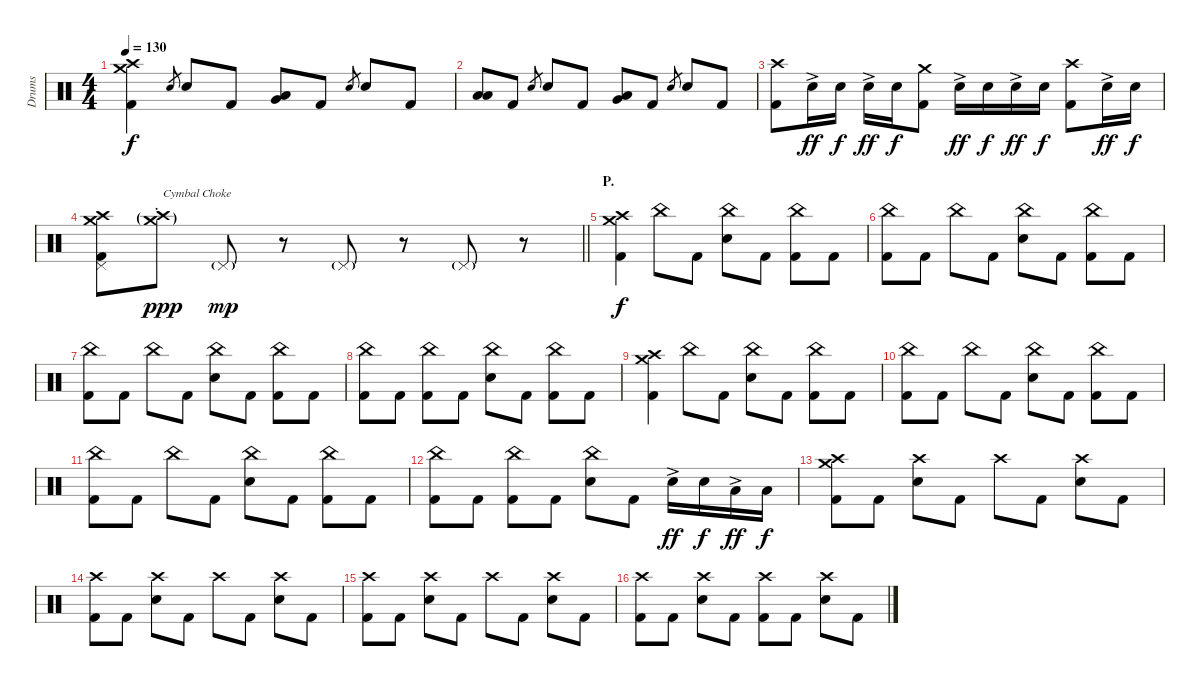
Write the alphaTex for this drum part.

\track ("Drums" "Drums") {instrument percussion}
\staff {score}
\articulation defaults
\ts (4 4)
\tempo 130
\clef neutral
\ks c
("Crash medium (hit)" "Crash high (hit)" "Kick (hit) 2").4{dy f} "Electric Snare (hit)".8{gr} "Electric Snare (hit)".8 "Kick (hit) 2".8 ("Very Low Tom (hit)" "Low Floor Tom (hit)").8{bu 120} "Kick (hit) 2".8 "Electric Snare (hit)".8{gr} "Electric Snare (hit)".8 "Kick (hit) 2".8 |
("Low Tom (hit)" "Low Floor Tom (hit)").8{bu 120} "Kick (hit) 2".8 "Electric Snare (hit)".8{gr} "Electric Snare (hit)".8 "Kick (hit) 2".8 ("Very Low Tom (hit)" "Low Floor Tom (hit)").8{bu 120} "Kick (hit) 2".8 "Electric Snare (hit)".8{gr} "Electric Snare (hit)".8 "Kick (hit) 2".8 |
("Crash high (hit)" "Kick (hit) 2").8 "Electric Snare (hit)"{ac}.16{dy ff} "Electric Snare (hit)".16{dy f} "Electric Snare (hit)"{ac}.16{dy ff} "Electric Snare (hit)".16{dy f} ("Crash medium (hit)" "Kick (hit) 2").8 "Electric Snare (hit)"{ac}.16{dy ff} "Electric Snare (hit)".16{dy f} "Electric Snare (hit)"{ac}.16{dy ff} "Electric Snare (hit)".16{dy f} ("Crash high (hit)" "Kick (hit) 2").8 "Electric Snare (hit)"{ac}.16{dy ff} "Electric Snare (hit)".16{dy f} |
\barLineRight lightlight
("Crash medium (hit)" "Crash high (hit)" "Pedal Hi-Hat (hit)" "Kick (hit) 2").8 ("Crash medium (hit)"{g st} "Crash high (hit)"{g st}).8{txt "Cymbal Choke" dy ppp} "Pedal Hi-Hat (hit)"{g}.8{dy mp} r.8 "Pedal Hi-Hat (hit)"{g}.8 r.8 "Pedal Hi-Hat (hit)"{g}.8 r.8 |
\section ("" "P.")
("Crash medium (hit)" "Crash high (hit)" "Kick (hit) 2").4{dy f} "China (hit)".8 "Kick (hit) 2".8 ("China (hit)" "Electric Snare (hit)").8 "Kick (hit) 2".8 ("China (hit)" "Kick (hit) 2").8 "Kick (hit) 2".8 |
("China (hit)" "Kick (hit) 2").8 "Kick (hit) 2".8 "China (hit)".8 "Kick (hit) 2".8 ("China (hit)" "Electric Snare (hit)").8 "Kick (hit) 2".8 ("China (hit)" "Kick (hit) 2").8 "Kick (hit) 2".8 |
("China (hit)" "Kick (hit) 2").8 "Kick (hit) 2".8 "China (hit)".8 "Kick (hit) 2".8 ("China (hit)" "Electric Snare (hit)").8 "Kick (hit) 2".8 ("China (hit)" "Kick (hit) 2").8 "Kick (hit) 2".8 |
("China (hit)" "Kick (hit) 2").8 "Kick (hit) 2".8 ("China (hit)" "Kick (hit) 2").8 "Kick (hit) 2".8 ("China (hit)" "Electric Snare (hit)").8 "Kick (hit) 2".8 ("China (hit)" "Kick (hit) 2").8 "Kick (hit) 2".8 |
("Crash medium (hit)" "Crash high (hit)" "Kick (hit) 2").4 "China (hit)".8 "Kick (hit) 2".8 ("China (hit)" "Electric Snare (hit)").8 "Kick (hit) 2".8 ("China (hit)" "Kick (hit) 2").8 "Kick (hit) 2".8 |
("China (hit)" "Kick (hit) 2").8 "Kick (hit) 2".8 "China (hit)".8 "Kick (hit) 2".8 ("China (hit)" "Electric Snare (hit)").8 "Kick (hit) 2".8 ("China (hit)" "Kick (hit) 2").8 "Kick (hit) 2".8 |
("China (hit)" "Kick (hit) 2").8 "Kick (hit) 2".8 "China (hit)".8 "Kick (hit) 2".8 ("China (hit)" "Electric Snare (hit)").8 "Kick (hit) 2".8 ("China (hit)" "Kick (hit) 2").8 "Kick (hit) 2".8 |
("China (hit)" "Kick (hit) 2").8 "Kick (hit) 2".8 ("China (hit)" "Kick (hit) 2").8 "Kick (hit) 2".8 ("China (hit)" "Electric Snare (hit)").8 "Kick (hit) 2".8 "Electric Snare (hit)"{ac}.16{dy ff} "Electric Snare (hit)".16{dy f} "Low Tom (hit)"{ac}.16{dy ff} "Low Tom (hit)".16{dy f} |
("Crash medium (hit)" "Crash high (hit)" "Kick (hit) 2").8 "Kick (hit) 2".8 ("Crash high (hit)" "Electric Snare (hit)").8 "Kick (hit) 2".8 "Crash high (hit)".8 "Kick (hit) 2".8 ("Crash high (hit)" "Electric Snare (hit)").8 "Kick (hit) 2".8 |
("Crash high (hit)" "Kick (hit) 2").8 "Kick (hit) 2".8 ("Crash high (hit)" "Electric Snare (hit)").8 "Kick (hit) 2".8 "Crash high (hit)".8 "Kick (hit) 2".8 ("Crash high (hit)" "Electric Snare (hit)").8 "Kick (hit) 2".8 |
("Crash high (hit)" "Kick (hit) 2").8 "Kick (hit) 2".8 ("Crash high (hit)" "Electric Snare (hit)").8 "Kick (hit) 2".8 "Crash high (hit)".8 "Kick (hit) 2".8 ("Crash high (hit)" "Electric Snare (hit)").8 "Kick (hit) 2".8 |
("Crash high (hit)" "Kick (hit) 2").8 "Kick (hit) 2".8 ("Crash high (hit)" "Electric Snare (hit)").8 "Kick (hit) 2".8 ("Crash high (hit)" "Kick (hit) 2").8 "Kick (hit) 2".8 ("Crash high (hit)" "Electric Snare (hit)").8 "Kick (hit) 2".8
